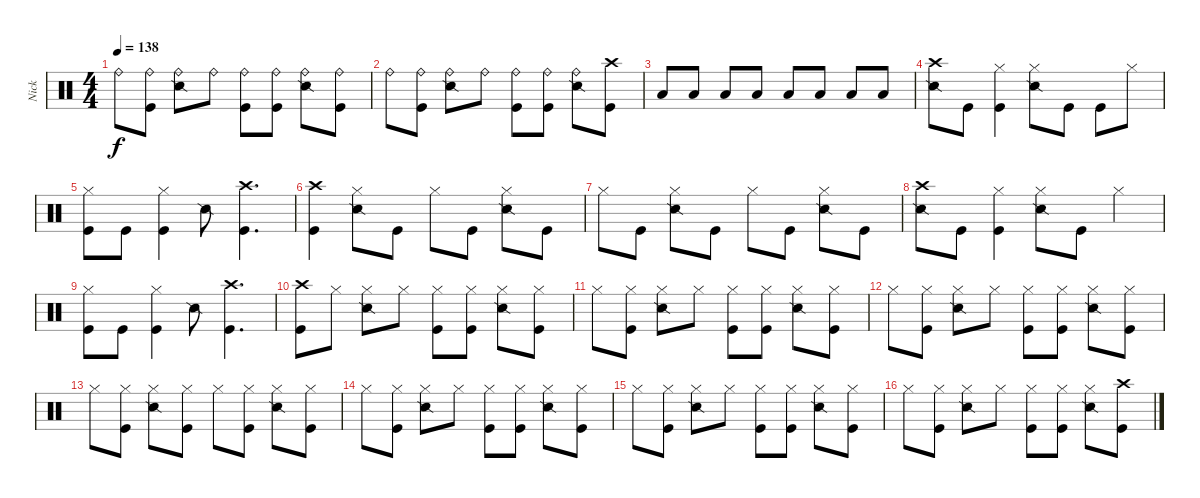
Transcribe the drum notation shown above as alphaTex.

\track ("Nick" "Nick") {instrument percussion}
\staff {score}
\articulation defaults
\ts (4 4)
\tempo 138
\clef neutral
\ks c "Ride (bell)".8{dy f}
("Ride (bell)" "Kick (hit)").8 ("Ride (bell)" "Snare (side stick) 2").8 "Ride (bell)".8 ("Ride (bell)" "Kick (hit)").8 ("Ride (bell)" "Kick (hit)").8 ("Ride (bell)" "Snare (side stick) 2").8 ("Ride (bell)" "Kick (hit)").8 |
"Ride (bell)".8 ("Ride (bell)" "Kick (hit)").8 ("Ride (bell)" "Snare (side stick) 2").8 "Ride (bell)".8 ("Ride (bell)" "Kick (hit)").8 ("Ride (bell)" "Kick (hit)").8 ("Ride (bell)" "Snare (side stick) 2").8 ("Crash high (hit)" "Kick (hit)").8 |
"Low Floor Tom (hit)".8 "Low Floor Tom (hit)".8 "Low Floor Tom (hit)".8 "Low Floor Tom (hit)".8 "Low Floor Tom (hit)".8 "Low Floor Tom (hit)".8 "Low Floor Tom (hit)".8 "Low Floor Tom (hit)".8 |
("Crash high (hit)" "Snare (side stick) 2").8 "Kick (hit)".8 ("Hi-Hat (closed)" "Kick (hit)").4 ("Hi-Hat (closed)" "Snare (side stick) 2").8 "Kick (hit)".8 "Kick (hit)".8 "Hi-Hat (closed)".8 |
("Hi-Hat (closed)" "Kick (hit)").8 "Kick (hit)".8 ("Hi-Hat (closed)" "Kick (hit)").4 "Snare (side stick) 2".8 ("Crash high (hit)" "Kick (hit)").4{d} |
("Crash high (hit)" "Kick (hit)").4 ("Hi-Hat (closed)" "Snare (side stick) 2").8 "Kick (hit)".8 "Hi-Hat (closed)".8 "Kick (hit)".8 ("Hi-Hat (closed)" "Snare (side stick) 2").8 "Kick (hit)".8 |
"Hi-Hat (closed)".8 "Kick (hit)".8 ("Hi-Hat (closed)" "Snare (side stick) 2").8 "Kick (hit)".8 "Hi-Hat (closed)".8 "Kick (hit)".8 ("Hi-Hat (closed)" "Snare (side stick) 2").8 "Kick (hit)".8 |
("Crash high (hit)" "Snare (side stick) 2").8 "Kick (hit)".8 ("Hi-Hat (closed)" "Kick (hit)").4 ("Hi-Hat (closed)" "Snare (side stick) 2").8 "Kick (hit)".8 "Hi-Hat (closed)".4 |
("Hi-Hat (closed)" "Kick (hit)").8 "Kick (hit)".8 ("Hi-Hat (closed)" "Kick (hit)").4 "Snare (side stick) 2".8 ("Crash high (hit)" "Kick (hit)").4{d} |
("Crash high (hit)" "Kick (hit)").8 "Hi-Hat (closed)".8 ("Hi-Hat (closed)" "Snare (side stick) 2").8 "Hi-Hat (closed)".8 ("Hi-Hat (closed)" "Kick (hit)").8 ("Hi-Hat (closed)" "Kick (hit)").8 ("Hi-Hat (closed)" "Snare (side stick) 2").8 ("Hi-Hat (closed)" "Kick (hit)").8 |
"Hi-Hat (closed)".8 ("Hi-Hat (closed)" "Kick (hit)").8 ("Hi-Hat (closed)" "Snare (side stick) 2").8 "Hi-Hat (closed)".8 ("Hi-Hat (closed)" "Kick (hit)").8 ("Hi-Hat (closed)" "Kick (hit)").8 ("Hi-Hat (closed)" "Snare (side stick) 2").8 ("Hi-Hat (closed)" "Kick (hit)").8 |
"Hi-Hat (closed)".8 ("Hi-Hat (closed)" "Kick (hit)").8 ("Hi-Hat (closed)" "Snare (side stick) 2").8 "Hi-Hat (closed)".8 ("Hi-Hat (closed)" "Kick (hit)").8 ("Hi-Hat (closed)" "Kick (hit)").8 ("Hi-Hat (closed)" "Snare (side stick) 2").8 ("Hi-Hat (closed)" "Kick (hit)").8 |
"Hi-Hat (closed)".8 ("Hi-Hat (closed)" "Kick (hit)").8 ("Hi-Hat (closed)" "Snare (side stick) 2").8 ("Hi-Hat (closed)" "Kick (hit)").8 "Hi-Hat (closed)".8 ("Hi-Hat (closed)" "Kick (hit)").8 ("Hi-Hat (closed)" "Snare (side stick) 2").8 ("Hi-Hat (closed)" "Kick (hit)").8 |
"Hi-Hat (closed)".8 ("Hi-Hat (closed)" "Kick (hit)").8 ("Hi-Hat (closed)" "Snare (side stick) 2").8 "Hi-Hat (closed)".8 ("Hi-Hat (closed)" "Kick (hit)").8 ("Hi-Hat (closed)" "Kick (hit)").8 ("Hi-Hat (closed)" "Snare (side stick) 2").8 ("Hi-Hat (closed)" "Kick (hit)").8 |
"Hi-Hat (closed)".8 ("Hi-Hat (closed)" "Kick (hit)").8 ("Hi-Hat (closed)" "Snare (side stick) 2").8 "Hi-Hat (closed)".8 ("Hi-Hat (closed)" "Kick (hit)").8 ("Hi-Hat (closed)" "Kick (hit)").8 ("Hi-Hat (closed)" "Snare (side stick) 2").8 ("Hi-Hat (closed)" "Kick (hit)").8 |
"Hi-Hat (closed)".8 ("Hi-Hat (closed)" "Kick (hit)").8 ("Hi-Hat (closed)" "Snare (side stick) 2").8 "Hi-Hat (closed)".8 ("Hi-Hat (closed)" "Kick (hit)").8 ("Hi-Hat (closed)" "Kick (hit)").8 ("Hi-Hat (closed)" "Snare (side stick) 2").8 ("Crash high (hit)" "Kick (hit)").8
